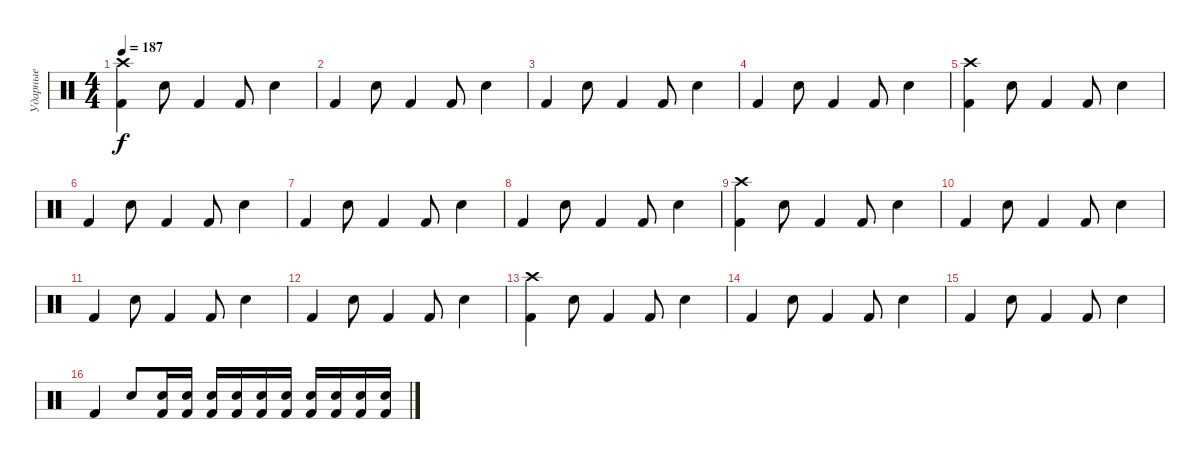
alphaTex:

\track ("Ударные" "Ударные") {instrument percussion}
\staff {score}
\articulation defaults
\ts (4 4)
\tempo 187
\clef neutral
\ks c
("Crash high (hit)" "Kick (hit) 2").4{dy f} "Snare (hit) 2".8 "Kick (hit) 2".4 "Kick (hit) 2".8 "Snare (hit) 2".4 |
"Kick (hit) 2".4 "Snare (hit) 2".8 "Kick (hit) 2".4 "Kick (hit) 2".8 "Snare (hit) 2".4 |
"Kick (hit) 2".4 "Snare (hit) 2".8 "Kick (hit) 2".4 "Kick (hit) 2".8 "Snare (hit) 2".4 |
"Kick (hit) 2".4 "Snare (hit) 2".8 "Kick (hit) 2".4 "Kick (hit) 2".8 "Snare (hit) 2".4 |
("Crash high (hit)" "Kick (hit) 2").4 "Snare (hit) 2".8 "Kick (hit) 2".4 "Kick (hit) 2".8 "Snare (hit) 2".4 |
"Kick (hit) 2".4 "Snare (hit) 2".8 "Kick (hit) 2".4 "Kick (hit) 2".8 "Snare (hit) 2".4 |
"Kick (hit) 2".4 "Snare (hit) 2".8 "Kick (hit) 2".4 "Kick (hit) 2".8 "Snare (hit) 2".4 |
"Kick (hit) 2".4 "Snare (hit) 2".8 "Kick (hit) 2".4 "Kick (hit) 2".8 "Snare (hit) 2".4 |
("Crash high (hit)" "Kick (hit) 2").4 "Snare (hit) 2".8 "Kick (hit) 2".4 "Kick (hit) 2".8 "Snare (hit) 2".4 |
"Kick (hit) 2".4 "Snare (hit) 2".8 "Kick (hit) 2".4 "Kick (hit) 2".8 "Snare (hit) 2".4 |
"Kick (hit) 2".4 "Snare (hit) 2".8 "Kick (hit) 2".4 "Kick (hit) 2".8 "Snare (hit) 2".4 |
"Kick (hit) 2".4 "Snare (hit) 2".8 "Kick (hit) 2".4 "Kick (hit) 2".8 "Snare (hit) 2".4 |
("Crash high (hit)" "Kick (hit) 2").4 "Snare (hit) 2".8 "Kick (hit) 2".4 "Kick (hit) 2".8 "Snare (hit) 2".4 |
"Kick (hit) 2".4 "Snare (hit) 2".8 "Kick (hit) 2".4 "Kick (hit) 2".8 "Snare (hit) 2".4 |
"Kick (hit) 2".4 "Snare (hit) 2".8 "Kick (hit) 2".4 "Kick (hit) 2".8 "Snare (hit) 2".4 |
"Kick (hit) 2".4 "Snare (hit) 2".8 ("Snare (hit) 2" "Kick (hit) 2").16 ("Snare (hit) 2" "Kick (hit) 2").16 ("Snare (hit) 2" "Kick (hit) 2").16 ("Snare (hit) 2" "Kick (hit) 2").16 ("Snare (hit) 2" "Kick (hit) 2").16 ("Snare (hit) 2" "Kick (hit) 2").16 ("Snare (hit) 2" "Kick (hit) 2").16 ("Snare (hit) 2" "Kick (hit) 2").16 ("Snare (hit) 2" "Kick (hit) 2").16 ("Snare (hit) 2" "Kick (hit) 2").16
